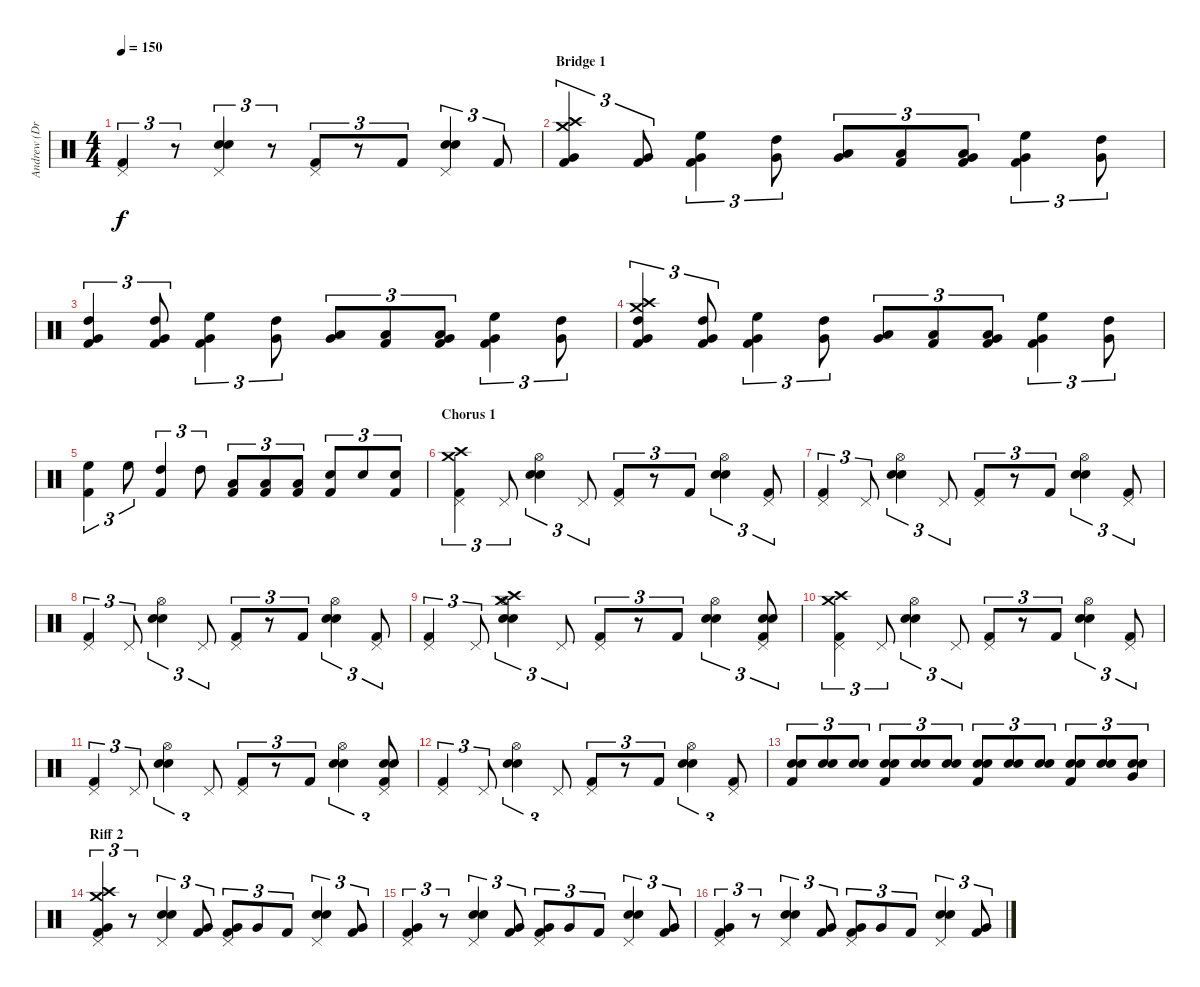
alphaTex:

\track ("Andrew (Drums)" "Andrew (Dr") {instrument percussion}
\staff {score}
\articulation defaults
\ts (4 4)
\tempo 150
\clef neutral
\ks c
("Kick (hit) 2" "Pedal Hi-Hat (hit)").4{tu (3 2) dy f} r.8{tu (3 2)} ("Electric Snare (hit)" "Snare (hit) 2" "Pedal Hi-Hat (hit)").4{tu (3 2)} r.8{tu (3 2)} ("Kick (hit) 2" "Pedal Hi-Hat (hit)").8{tu (3 2)} r.8{tu (3 2)} "Kick (hit) 2".8{tu (3 2)} ("Electric Snare (hit)" "Snare (hit) 2" "Pedal Hi-Hat (hit)").4{tu (3 2)} "Kick (hit) 2".8{tu (3 2)} |
\section ("" "Bridge 1")
("Crash high (hit)" "Crash medium (hit)" "Kick (hit) 2" "Very Low Tom (hit)").4{tu (3 2)} ("Kick (hit) 2" "Very Low Tom (hit)").8{tu (3 2)} ("High Floor Tom (hit)" "Kick (hit) 2" "Very Low Tom (hit)").4{tu (3 2)} ("High Tom (hit)" "Very Low Tom (hit)").8{tu (3 2)} ("Low Tom (hit)" "Very Low Tom (hit)").8{tu (3 2)} ("Low Tom (hit)" "Kick (hit) 2").8{tu (3 2)} ("Low Tom (hit)" "Kick (hit) 2" "Very Low Tom (hit)").8{tu (3 2)} ("High Floor Tom (hit)" "Kick (hit) 2" "Very Low Tom (hit)").4{tu (3 2)} ("High Tom (hit)" "Very Low Tom (hit)").8{tu (3 2)} |
("High Tom (hit)" "Kick (hit) 2" "Very Low Tom (hit)").4{tu (3 2)} ("High Tom (hit)" "Kick (hit) 2" "Very Low Tom (hit)").8{tu (3 2)} ("High Floor Tom (hit)" "Kick (hit) 2" "Very Low Tom (hit)").4{tu (3 2)} ("High Tom (hit)" "Very Low Tom (hit)").8{tu (3 2)} ("Low Tom (hit)" "Very Low Tom (hit)").8{tu (3 2)} ("Low Tom (hit)" "Kick (hit) 2").8{tu (3 2)} ("Low Tom (hit)" "Kick (hit) 2" "Very Low Tom (hit)").8{tu (3 2)} ("High Floor Tom (hit)" "Kick (hit) 2" "Very Low Tom (hit)").4{tu (3 2)} ("High Tom (hit)" "Very Low Tom (hit)").8{tu (3 2)} |
("Crash medium (hit)" "High Tom (hit)" "Kick (hit) 2" "Very Low Tom (hit)" "Crash high (hit)").4{tu (3 2)} ("High Tom (hit)" "Kick (hit) 2" "Very Low Tom (hit)").8{tu (3 2)} ("High Floor Tom (hit)" "Kick (hit) 2" "Very Low Tom (hit)").4{tu (3 2)} ("High Tom (hit)" "Very Low Tom (hit)").8{tu (3 2)} ("Low Tom (hit)" "Very Low Tom (hit)").8{tu (3 2)} ("Low Tom (hit)" "Kick (hit) 2").8{tu (3 2)} ("Low Tom (hit)" "Kick (hit) 2" "Very Low Tom (hit)").8{tu (3 2)} ("High Floor Tom (hit)" "Kick (hit) 2" "Very Low Tom (hit)").4{tu (3 2)} ("High Tom (hit)" "Very Low Tom (hit)").8{tu (3 2)} |
("High Floor Tom (hit)" "Kick (hit) 2").4{tu (3 2)} "High Floor Tom (hit)".8{tu (3 2)} ("High Tom (hit)" "Kick (hit) 2").4{tu (3 2)} "High Tom (hit)".8{tu (3 2)} ("Low Tom (hit)" "Kick (hit) 2").8{tu (3 2)} ("Low Tom (hit)" "Kick (hit) 2").8{tu (3 2)} ("Low Tom (hit)" "Kick (hit) 2").8{tu (3 2)} ("Electric Snare (hit)" "Kick (hit) 2").8{tu (3 2)} "Electric Snare (hit)".8{tu (3 2)} ("Electric Snare (hit)" "Kick (hit) 2").8{tu (3 2)} |
\section ("" "Chorus 1")
("Kick (hit) 2" "Pedal Hi-Hat (hit)" "Crash medium (hit)" "Crash high (hit)").4{tu (3 2)} "Pedal Hi-Hat (hit)".8{tu (3 2)} ("Electric Snare (hit)" "Snare (hit) 2" "Hi-Hat (open)").4{tu (3 2)} "Pedal Hi-Hat (hit)".8{tu (3 2)} ("Kick (hit) 2" "Pedal Hi-Hat (hit)").8{tu (3 2)} r.8{tu (3 2)} "Kick (hit) 2".8{tu (3 2)} ("Electric Snare (hit)" "Snare (hit) 2" "Hi-Hat (open)").4{tu (3 2)} ("Kick (hit) 2" "Pedal Hi-Hat (hit)").8{tu (3 2)} |
("Kick (hit) 2" "Pedal Hi-Hat (hit)").4{tu (3 2)} "Pedal Hi-Hat (hit)".8{tu (3 2)} ("Electric Snare (hit)" "Snare (hit) 2" "Hi-Hat (open)").4{tu (3 2)} "Pedal Hi-Hat (hit)".8{tu (3 2)} ("Kick (hit) 2" "Pedal Hi-Hat (hit)").8{tu (3 2)} r.8{tu (3 2)} "Kick (hit) 2".8{tu (3 2)} ("Electric Snare (hit)" "Snare (hit) 2" "Hi-Hat (open)").4{tu (3 2)} ("Kick (hit) 2" "Pedal Hi-Hat (hit)").8{tu (3 2)} |
("Kick (hit) 2" "Pedal Hi-Hat (hit)").4{tu (3 2)} "Pedal Hi-Hat (hit)".8{tu (3 2)} ("Electric Snare (hit)" "Snare (hit) 2" "Hi-Hat (open)").4{tu (3 2)} "Pedal Hi-Hat (hit)".8{tu (3 2)} ("Kick (hit) 2" "Pedal Hi-Hat (hit)").8{tu (3 2)} r.8{tu (3 2)} "Kick (hit) 2".8{tu (3 2)} ("Electric Snare (hit)" "Snare (hit) 2" "Hi-Hat (open)").4{tu (3 2)} ("Kick (hit) 2" "Pedal Hi-Hat (hit)").8{tu (3 2)} |
("Kick (hit) 2" "Pedal Hi-Hat (hit)").4{tu (3 2)} "Pedal Hi-Hat (hit)".8{tu (3 2)} ("Electric Snare (hit)" "Snare (hit) 2" "Hi-Hat (open)" "Crash medium (hit)" "Crash high (hit)").4{tu (3 2)} "Pedal Hi-Hat (hit)".8{tu (3 2)} ("Kick (hit) 2" "Pedal Hi-Hat (hit)").8{tu (3 2)} r.8{tu (3 2)} "Kick (hit) 2".8{tu (3 2)} ("Electric Snare (hit)" "Snare (hit) 2" "Hi-Hat (open)").4{tu (3 2)} ("Kick (hit) 2" "Electric Snare (hit)" "Pedal Hi-Hat (hit)" "Snare (hit) 2").8{tu (3 2)} |
("Kick (hit) 2" "Pedal Hi-Hat (hit)" "Crash medium (hit)" "Crash high (hit)").4{tu (3 2)} "Pedal Hi-Hat (hit)".8{tu (3 2)} ("Electric Snare (hit)" "Snare (hit) 2" "Hi-Hat (open)").4{tu (3 2)} "Pedal Hi-Hat (hit)".8{tu (3 2)} ("Kick (hit) 2" "Pedal Hi-Hat (hit)").8{tu (3 2)} r.8{tu (3 2)} "Kick (hit) 2".8{tu (3 2)} ("Electric Snare (hit)" "Snare (hit) 2" "Hi-Hat (open)").4{tu (3 2)} ("Kick (hit) 2" "Pedal Hi-Hat (hit)").8{tu (3 2)} |
("Kick (hit) 2" "Pedal Hi-Hat (hit)").4{tu (3 2)} "Pedal Hi-Hat (hit)".8{tu (3 2)} ("Electric Snare (hit)" "Snare (hit) 2" "Hi-Hat (open)").4{tu (3 2)} "Pedal Hi-Hat (hit)".8{tu (3 2)} ("Kick (hit) 2" "Pedal Hi-Hat (hit)").8{tu (3 2)} r.8{tu (3 2)} "Kick (hit) 2".8{tu (3 2)} ("Electric Snare (hit)" "Snare (hit) 2" "Hi-Hat (open)").4{tu (3 2)} ("Kick (hit) 2" "Electric Snare (hit)" "Pedal Hi-Hat (hit)" "Snare (hit) 2").8{tu (3 2)} |
("Kick (hit) 2" "Pedal Hi-Hat (hit)").4{tu (3 2)} "Pedal Hi-Hat (hit)".8{tu (3 2)} ("Electric Snare (hit)" "Snare (hit) 2" "Hi-Hat (open)").4{tu (3 2)} "Pedal Hi-Hat (hit)".8{tu (3 2)} ("Kick (hit) 2" "Pedal Hi-Hat (hit)").8{tu (3 2)} r.8{tu (3 2)} "Kick (hit) 2".8{tu (3 2)} ("Electric Snare (hit)" "Snare (hit) 2" "Hi-Hat (open)").4{tu (3 2)} ("Kick (hit) 2" "Pedal Hi-Hat (hit)").8{tu (3 2)} |
("Electric Snare (hit)" "Snare (hit) 2" "Kick (hit) 2").8{tu (3 2)} ("Electric Snare (hit)" "Snare (hit) 2").8{tu (3 2)} ("Electric Snare (hit)" "Snare (hit) 2").8{tu (3 2)} ("Electric Snare (hit)" "Snare (hit) 2" "Kick (hit) 2").8{tu (3 2)} ("Electric Snare (hit)" "Snare (hit) 2").8{tu (3 2)} ("Electric Snare (hit)" "Snare (hit) 2").8{tu (3 2)} ("Electric Snare (hit)" "Snare (hit) 2" "Kick (hit) 2").8{tu (3 2)} ("Electric Snare (hit)" "Snare (hit) 2").8{tu (3 2)} ("Electric Snare (hit)" "Snare (hit) 2").8{tu (3 2)} ("Electric Snare (hit)" "Snare (hit) 2" "Kick (hit) 2").8{tu (3 2)} ("Electric Snare (hit)" "Snare (hit) 2").8{tu (3 2)} ("Electric Snare (hit)" "Snare (hit) 2" "Very Low Tom (hit)").8{tu (3 2)} |
\section ("" "Riff 2")
("Kick (hit) 2" "Pedal Hi-Hat (hit)" "Very Low Tom (hit)" "Crash medium (hit)" "Crash high (hit)").4{tu (3 2)} r.8{tu (3 2)} ("Electric Snare (hit)" "Snare (hit) 2" "Pedal Hi-Hat (hit)").4{tu (3 2)} ("Kick (hit) 2" "Very Low Tom (hit)").8{tu (3 2)} ("Kick (hit) 2" "Pedal Hi-Hat (hit)" "Very Low Tom (hit)").8{tu (3 2)} "Very Low Tom (hit)".8{tu (3 2)} "Kick (hit) 2".8{tu (3 2)} ("Electric Snare (hit)" "Snare (hit) 2" "Pedal Hi-Hat (hit)").4{tu (3 2)} ("Kick (hit) 2" "Very Low Tom (hit)").8{tu (3 2)} |
("Kick (hit) 2" "Pedal Hi-Hat (hit)" "Very Low Tom (hit)").4{tu (3 2)} r.8{tu (3 2)} ("Electric Snare (hit)" "Snare (hit) 2" "Pedal Hi-Hat (hit)").4{tu (3 2)} ("Kick (hit) 2" "Very Low Tom (hit)").8{tu (3 2)} ("Kick (hit) 2" "Pedal Hi-Hat (hit)" "Very Low Tom (hit)").8{tu (3 2)} "Very Low Tom (hit)".8{tu (3 2)} "Kick (hit) 2".8{tu (3 2)} ("Electric Snare (hit)" "Snare (hit) 2" "Pedal Hi-Hat (hit)").4{tu (3 2)} ("Kick (hit) 2" "Very Low Tom (hit)").8{tu (3 2)} |
("Kick (hit) 2" "Pedal Hi-Hat (hit)" "Very Low Tom (hit)").4{tu (3 2)} r.8{tu (3 2)} ("Electric Snare (hit)" "Snare (hit) 2" "Pedal Hi-Hat (hit)").4{tu (3 2)} ("Kick (hit) 2" "Very Low Tom (hit)").8{tu (3 2)} ("Kick (hit) 2" "Pedal Hi-Hat (hit)" "Very Low Tom (hit)").8{tu (3 2)} "Very Low Tom (hit)".8{tu (3 2)} "Kick (hit) 2".8{tu (3 2)} ("Electric Snare (hit)" "Snare (hit) 2" "Pedal Hi-Hat (hit)").4{tu (3 2)} ("Kick (hit) 2" "Very Low Tom (hit)").8{tu (3 2)}
